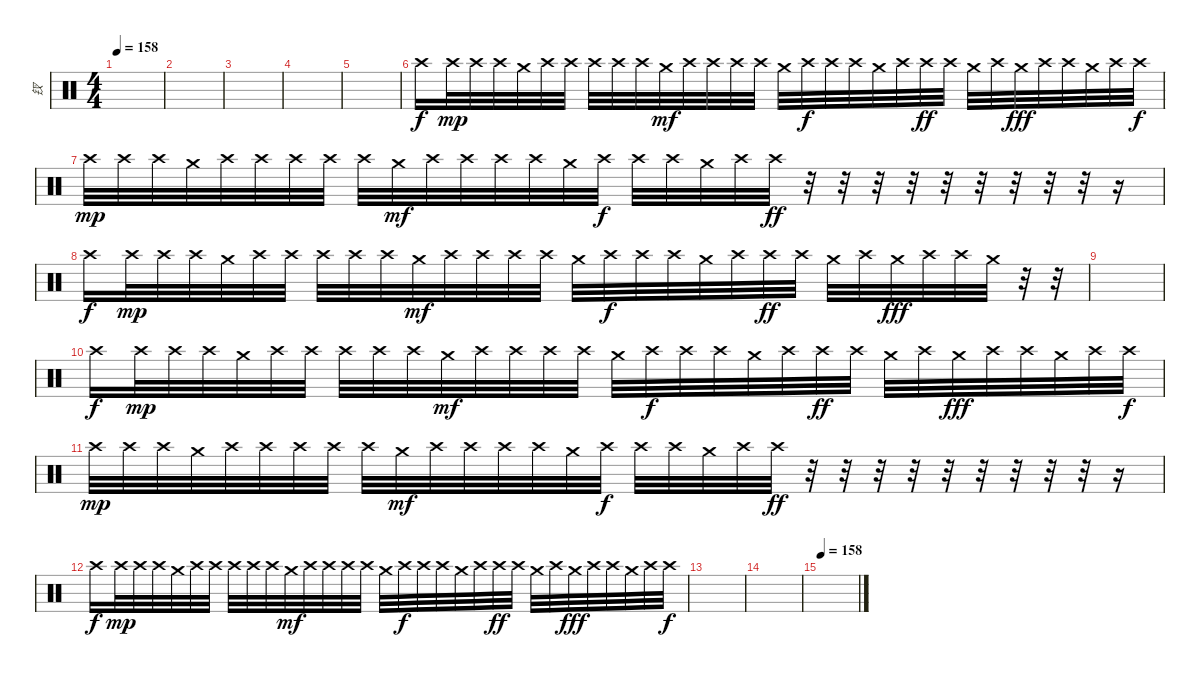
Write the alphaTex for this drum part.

\track ("钗" "钗") {instrument percussion}
\staff {score}
\articulation defaults
\ts (4 4)
\tempo 158
\clef neutral
\ks c
|
|
|
|
|
"Crash high (hit)".16 "Crash high (hit)".32{dy mp} "Crash high (hit)".32 "Crash high (hit)".32 "Crash medium (hit)".32 "Crash high (hit)".32 "Crash high (hit)".32 "Crash high (hit)".32 "Crash high (hit)".32 "Crash high (hit)".32 "Crash medium (hit)".32{dy mf} "Crash high (hit)".32 "Crash high (hit)".32 "Crash high (hit)".32 "Crash high (hit)".32 "Crash medium (hit)".32 "Crash high (hit)".32{dy f} "Crash high (hit)".32 "Crash high (hit)".32 "Crash medium (hit)".32 "Crash high (hit)".32 "Crash high (hit)".32{dy ff} "Crash high (hit)".32 "Crash medium (hit)".32 "Crash high (hit)".32 "Crash medium (hit)".32{dy fff} "Crash high (hit)".32 "Crash high (hit)".32 "Crash medium (hit)".32 "Crash high (hit)".32 "Crash high (hit)".32{dy f} |
"Crash high (hit)".32{dy mp} "Crash high (hit)".32 "Crash high (hit)".32 "Crash medium (hit)".32 "Crash high (hit)".32 "Crash high (hit)".32 "Crash high (hit)".32 "Crash high (hit)".32 "Crash high (hit)".32 "Crash medium (hit)".32{dy mf} "Crash high (hit)".32 "Crash high (hit)".32 "Crash high (hit)".32 "Crash high (hit)".32 "Crash medium (hit)".32 "Crash high (hit)".32{dy f} "Crash high (hit)".32 "Crash high (hit)".32 "Crash medium (hit)".32 "Crash high (hit)".32 "Crash high (hit)".32{dy ff} r.32 r.32 r.32 r.32 r.32 r.32 r.32 r.32 r.32 r.16 |
"Crash high (hit)".16{dy f} "Crash high (hit)".32{dy mp} "Crash high (hit)".32 "Crash high (hit)".32 "Crash medium (hit)".32 "Crash high (hit)".32 "Crash high (hit)".32 "Crash high (hit)".32 "Crash high (hit)".32 "Crash high (hit)".32 "Crash medium (hit)".32{dy mf} "Crash high (hit)".32 "Crash high (hit)".32 "Crash high (hit)".32 "Crash high (hit)".32 "Crash medium (hit)".32 "Crash high (hit)".32{dy f} "Crash high (hit)".32 "Crash high (hit)".32 "Crash medium (hit)".32 "Crash high (hit)".32 "Crash high (hit)".32{dy ff} "Crash high (hit)".32 "Crash medium (hit)".32 "Crash high (hit)".32 "Crash medium (hit)".32{dy fff} "Crash high (hit)".32 "Crash high (hit)".32 "Crash medium (hit)".32 r.32 r.32 |
|
"Crash high (hit)".16{dy f} "Crash high (hit)".32{dy mp} "Crash high (hit)".32 "Crash high (hit)".32 "Crash medium (hit)".32 "Crash high (hit)".32 "Crash high (hit)".32 "Crash high (hit)".32 "Crash high (hit)".32 "Crash high (hit)".32 "Crash medium (hit)".32{dy mf} "Crash high (hit)".32 "Crash high (hit)".32 "Crash high (hit)".32 "Crash high (hit)".32 "Crash medium (hit)".32 "Crash high (hit)".32{dy f} "Crash high (hit)".32 "Crash high (hit)".32 "Crash medium (hit)".32 "Crash high (hit)".32 "Crash high (hit)".32{dy ff} "Crash high (hit)".32 "Crash medium (hit)".32 "Crash high (hit)".32 "Crash medium (hit)".32{dy fff} "Crash high (hit)".32 "Crash high (hit)".32 "Crash medium (hit)".32 "Crash high (hit)".32 "Crash high (hit)".32{dy f} |
"Crash high (hit)".32{dy mp} "Crash high (hit)".32 "Crash high (hit)".32 "Crash medium (hit)".32 "Crash high (hit)".32 "Crash high (hit)".32 "Crash high (hit)".32 "Crash high (hit)".32 "Crash high (hit)".32 "Crash medium (hit)".32{dy mf} "Crash high (hit)".32 "Crash high (hit)".32 "Crash high (hit)".32 "Crash high (hit)".32 "Crash medium (hit)".32 "Crash high (hit)".32{dy f} "Crash high (hit)".32 "Crash high (hit)".32 "Crash medium (hit)".32 "Crash high (hit)".32 "Crash high (hit)".32{dy ff} r.32 r.32 r.32 r.32 r.32 r.32 r.32 r.32 r.32 r.16 |
"Crash high (hit)".16{dy f} "Crash high (hit)".32{dy mp} "Crash high (hit)".32 "Crash high (hit)".32 "Crash medium (hit)".32 "Crash high (hit)".32 "Crash high (hit)".32 "Crash high (hit)".32 "Crash high (hit)".32 "Crash high (hit)".32 "Crash medium (hit)".32{dy mf} "Crash high (hit)".32 "Crash high (hit)".32 "Crash high (hit)".32 "Crash high (hit)".32 "Crash medium (hit)".32 "Crash high (hit)".32{dy f} "Crash high (hit)".32 "Crash high (hit)".32 "Crash medium (hit)".32 "Crash high (hit)".32 "Crash high (hit)".32{dy ff} "Crash high (hit)".32 "Crash medium (hit)".32 "Crash high (hit)".32 "Crash medium (hit)".32{dy fff} "Crash high (hit)".32 "Crash high (hit)".32 "Crash medium (hit)".32 "Crash high (hit)".32 "Crash high (hit)".32{dy f} |
|
|
\tempo 158
